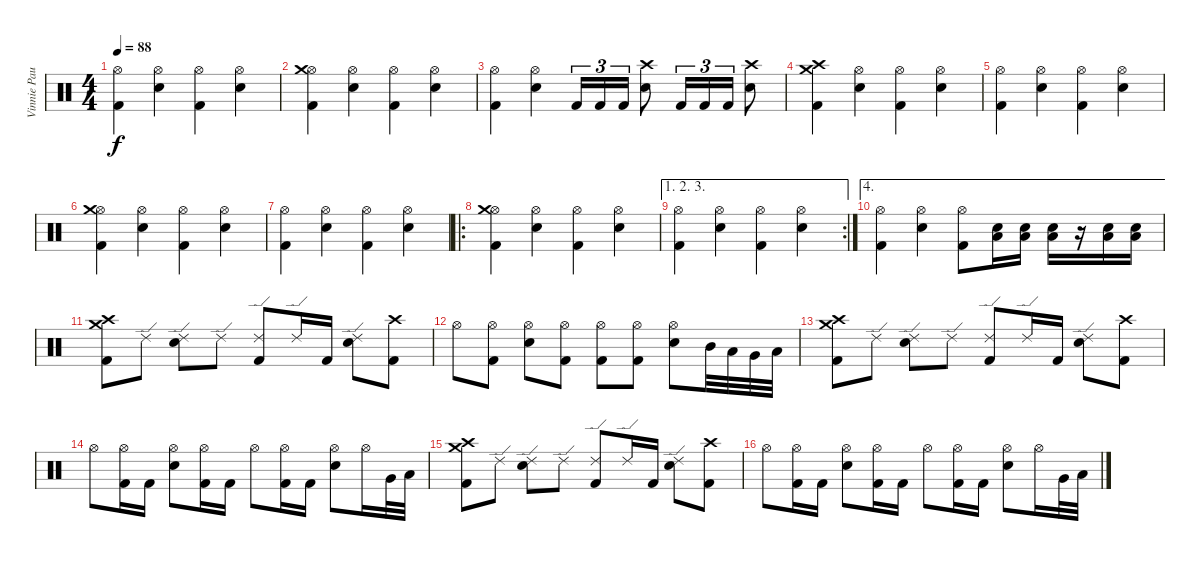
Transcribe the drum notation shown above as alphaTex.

\track ("Vinnie Paul (Drums)" "Vinnie Pau") {instrument percussion}
\staff {score}
\articulation defaults
\ts (4 4)
\tempo 88
\clef neutral
\ks c
("Hi-Hat (open)" "Kick (hit) 2").4{dy f} ("Hi-Hat (open)" "Snare (hit) 2").4 ("Hi-Hat (open)" "Kick (hit) 2").4 ("Hi-Hat (open)" "Snare (hit) 2").4 |
("Hi-Hat (open)" "Crash medium (hit)" "Kick (hit) 2").4 ("Hi-Hat (open)" "Snare (hit) 2").4 ("Hi-Hat (open)" "Kick (hit) 2").4 ("Hi-Hat (open)" "Snare (hit) 2").4 |
("Hi-Hat (open)" "Kick (hit) 2").4 ("Hi-Hat (open)" "Snare (hit) 2").4 "Kick (hit) 2".16{tu (3 2)} "Kick (hit) 2".16{tu (3 2)} "Kick (hit) 2".16{tu (3 2)} ("Crash high (hit)" "Snare (hit) 2").8 "Kick (hit) 2".16{tu (3 2)} "Kick (hit) 2".16{tu (3 2)} "Kick (hit) 2".16{tu (3 2)} ("Crash high (hit)" "Snare (hit) 2").8 |
("Crash high (hit)" "Crash medium (hit)" "Kick (hit) 2").4 ("Hi-Hat (open)" "Snare (hit) 2").4 ("Hi-Hat (open)" "Kick (hit) 2").4 ("Hi-Hat (open)" "Snare (hit) 2").4 |
("Hi-Hat (open)" "Kick (hit) 2").4 ("Hi-Hat (open)" "Snare (hit) 2").4 ("Hi-Hat (open)" "Kick (hit) 2").4 ("Hi-Hat (open)" "Snare (hit) 2").4 |
("Hi-Hat (open)" "Crash medium (hit)" "Kick (hit) 2").4 ("Hi-Hat (open)" "Snare (hit) 2").4 ("Hi-Hat (open)" "Kick (hit) 2").4 ("Hi-Hat (open)" "Snare (hit) 2").4 |
("Hi-Hat (open)" "Kick (hit) 2").4 ("Hi-Hat (open)" "Snare (hit) 2").4 ("Hi-Hat (open)" "Kick (hit) 2").4 ("Hi-Hat (open)" "Snare (hit) 2").4 |
\ro
("Hi-Hat (open)" "Crash medium (hit)" "Kick (hit) 2").4 ("Hi-Hat (open)" "Snare (hit) 2").4 ("Hi-Hat (open)" "Kick (hit) 2").4 ("Hi-Hat (open)" "Snare (hit) 2").4 |
\ae (1 2 3)
\rc 2
("Hi-Hat (open)" "Kick (hit) 2").4 ("Hi-Hat (open)" "Snare (hit) 2").4 ("Hi-Hat (open)" "Kick (hit) 2").4 ("Hi-Hat (open)" "Snare (hit) 2").4 |
\ae 4
("Hi-Hat (open)" "Kick (hit) 2").4 ("Hi-Hat (open)" "Snare (hit) 2").4 ("Hi-Hat (open)" "Kick (hit) 2").8 ("Low Floor Tom (hit)" "Snare (hit) 2").16 ("Low Floor Tom (hit)" "Snare (hit) 2").16 ("Low Floor Tom (hit)" "Snare (hit) 2").16 r.16 ("Low Floor Tom (hit)" "Snare (hit) 2").16 ("Low Floor Tom (hit)" "Snare (hit) 2").16 |
("Crash high (hit)" "Crash medium (hit)" "Kick (hit) 2").8 "Ride (edge) 2".8 ("Ride (edge) 2" "Snare (hit) 2").8 "Ride (edge) 2".8 ("Ride (edge) 2" "Kick (hit) 2").8 "Ride (edge) 2".16 "Kick (hit) 2".16 ("Ride (edge) 2" "Snare (hit) 2").8 ("Crash high (hit)" "Kick (hit) 2").8 |
"Hi-Hat (open)".8 ("Hi-Hat (open)" "Kick (hit) 2").8 ("Hi-Hat (open)" "Snare (hit) 2").8 ("Hi-Hat (open)" "Kick (hit) 2").8 ("Hi-Hat (open)" "Kick (hit) 2").8 ("Hi-Hat (open)" "Kick (hit) 2").8 ("Hi-Hat (open)" "Snare (hit) 2").8 "Mid Tom (hit)".32 "Low Tom (hit)".32 "Very Low Tom (hit)".32 "Low Floor Tom (hit)".32 |
("Crash high (hit)" "Crash medium (hit)" "Kick (hit) 2").8 "Ride (edge) 2".8 ("Ride (edge) 2" "Snare (hit) 2").8 "Ride (edge) 2".8 ("Ride (edge) 2" "Kick (hit) 2").8 "Ride (edge) 2".16 "Kick (hit) 2".16 ("Ride (edge) 2" "Snare (hit) 2").8 ("Crash high (hit)" "Kick (hit) 2").8 |
"Hi-Hat (open)".8 ("Hi-Hat (open)" "Kick (hit) 2").16 "Kick (hit) 2".16 ("Hi-Hat (open)" "Snare (hit) 2").8 ("Hi-Hat (open)" "Kick (hit) 2").16 "Kick (hit) 2".16 "Hi-Hat (open)".8 ("Hi-Hat (open)" "Kick (hit) 2").16 "Kick (hit) 2".16 ("Hi-Hat (open)" "Snare (hit) 2").8 "Hi-Hat (open)".16 "Very Low Tom (hit)".32 "Low Floor Tom (hit)".32 |
("Crash high (hit)" "Crash medium (hit)" "Kick (hit) 2").8 "Ride (edge) 2".8 ("Ride (edge) 2" "Snare (hit) 2").8 "Ride (edge) 2".8 ("Ride (edge) 2" "Kick (hit) 2").8 "Ride (edge) 2".16 "Kick (hit) 2".16 ("Ride (edge) 2" "Snare (hit) 2").8 ("Crash high (hit)" "Kick (hit) 2").8 |
"Hi-Hat (open)".8 ("Hi-Hat (open)" "Kick (hit) 2").16 "Kick (hit) 2".16 ("Hi-Hat (open)" "Snare (hit) 2").8 ("Hi-Hat (open)" "Kick (hit) 2").16 "Kick (hit) 2".16 "Hi-Hat (open)".8 ("Hi-Hat (open)" "Kick (hit) 2").16 "Kick (hit) 2".16 ("Hi-Hat (open)" "Snare (hit) 2").8 "Hi-Hat (open)".16 "Very Low Tom (hit)".32 "Low Floor Tom (hit)".32
